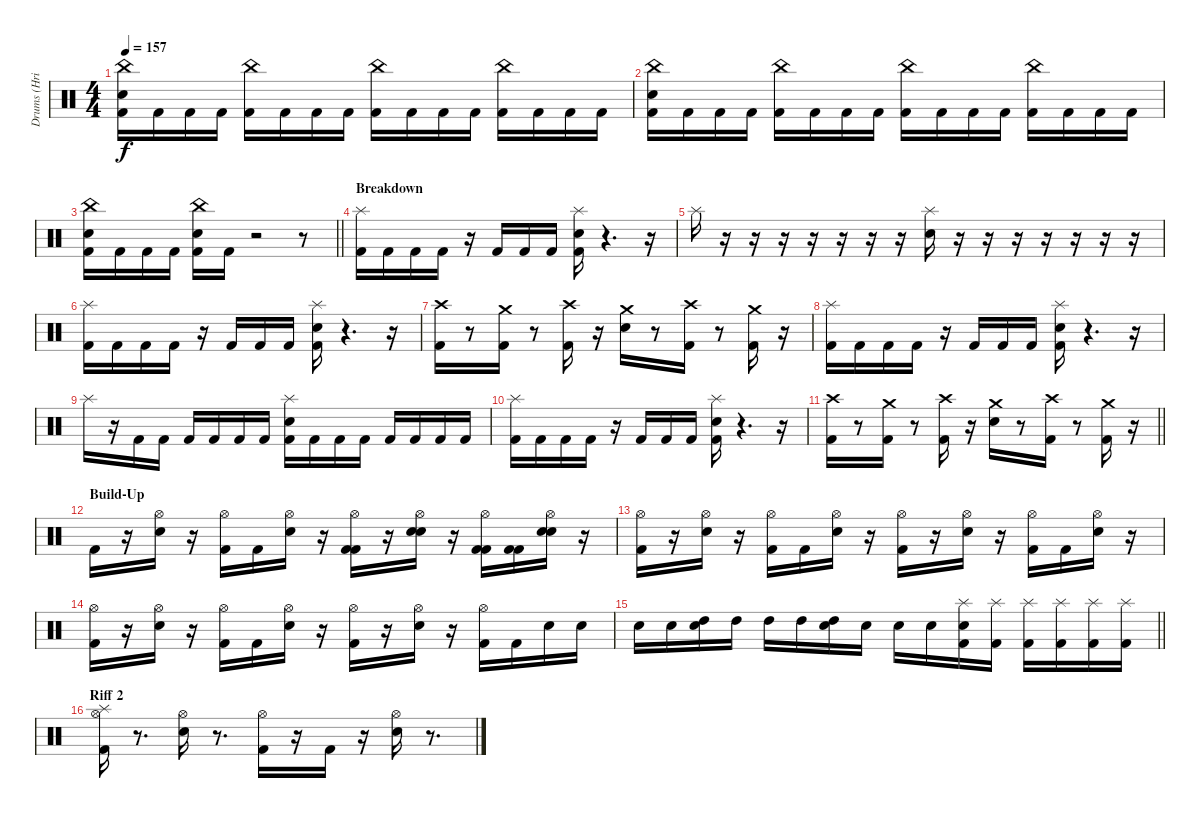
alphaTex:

\track ("Drums (Hriso)" "Drums (Hri") {instrument percussion}
\staff {score}
\articulation defaults
\ts (4 4)
\tempo 157
\clef neutral
\ks c
("Snare (hit) 2" "Kick (hit) 2" "China (hit)").16{dy f} "Kick (hit) 2".16 "Kick (hit) 2".16 "Kick (hit) 2".16 ("Kick (hit) 2" "China (hit)").16 "Kick (hit) 2".16 "Kick (hit) 2".16 "Kick (hit) 2".16 ("Kick (hit) 2" "China (hit)").16 "Kick (hit) 2".16 "Kick (hit) 2".16 "Kick (hit) 2".16 ("Kick (hit) 2" "China (hit)").16 "Kick (hit) 2".16 "Kick (hit) 2".16 "Kick (hit) 2".16 |
("Kick (hit) 2" "Snare (hit) 2" "China (hit)").16 "Kick (hit) 2".16 "Kick (hit) 2".16 "Kick (hit) 2".16 ("Kick (hit) 2" "China (hit)").16 "Kick (hit) 2".16 "Kick (hit) 2".16 "Kick (hit) 2".16 ("Kick (hit) 2" "China (hit)").16 "Kick (hit) 2".16 "Kick (hit) 2".16 "Kick (hit) 2".16 ("Kick (hit) 2" "China (hit)").16 "Kick (hit) 2".16 "Kick (hit) 2".16 "Kick (hit) 2".16 |
\barLineRight lightlight
("Kick (hit) 2" "Snare (hit) 2" "China (hit)").16 "Kick (hit) 2".16 "Kick (hit) 2".16 "Kick (hit) 2".16 ("Kick (hit) 2" "Snare (hit) 2" "China (hit)").16 "Kick (hit) 2".16 r.2 r.8 |
\section ("" "Breakdown")
("Kick (hit) 2" "Splash (hit)").16 "Kick (hit) 2".16 "Kick (hit) 2".16 "Kick (hit) 2".16 r.16 "Kick (hit) 2".16 "Kick (hit) 2".16 "Kick (hit) 2".16 ("Kick (hit) 2" "Snare (hit) 2" "Splash (hit)").16 r.4{d} r.16 |
"Splash (hit)".16 r.16 r.16 r.16 r.16 r.16 r.16 r.16 ("Snare (hit) 2" "Splash (hit)").16 r.16 r.16 r.16 r.16 r.16 r.16 r.16 |
("Kick (hit) 2" "Splash (hit)").16 "Kick (hit) 2".16 "Kick (hit) 2".16 "Kick (hit) 2".16 r.16 "Kick (hit) 2".16 "Kick (hit) 2".16 "Kick (hit) 2".16 ("Kick (hit) 2" "Snare (hit) 2" "Splash (hit)").16 r.4{d} r.16 |
("Kick (hit) 2" "Crash high (hit)").16 r.8 ("Crash medium (hit)" "Kick (hit) 2").16 r.8 ("Kick (hit) 2" "Crash high (hit)").16 r.16 ("Crash medium (hit)" "Snare (hit) 2").16 r.8 ("Kick (hit) 2" "Crash high (hit)").16 r.8 ("Crash medium (hit)" "Kick (hit) 2").16 r.16 |
("Kick (hit) 2" "Splash (hit)").16 "Kick (hit) 2".16 "Kick (hit) 2".16 "Kick (hit) 2".16 r.16 "Kick (hit) 2".16 "Kick (hit) 2".16 "Kick (hit) 2".16 ("Kick (hit) 2" "Snare (hit) 2" "Splash (hit)").16 r.4{d} r.16 |
"Splash (hit)".16 r.16 "Kick (hit) 2".16 "Kick (hit) 2".16 "Kick (hit) 2".16 "Kick (hit) 2".16 "Kick (hit) 2".16 "Kick (hit) 2".16 ("Snare (hit) 2" "Kick (hit) 2" "Splash (hit)").16 "Kick (hit) 2".16 "Kick (hit) 2".16 "Kick (hit) 2".16 "Kick (hit) 2".16 "Kick (hit) 2".16 "Kick (hit) 2".16 "Kick (hit) 2".16 |
("Kick (hit) 2" "Splash (hit)").16 "Kick (hit) 2".16 "Kick (hit) 2".16 "Kick (hit) 2".16 r.16 "Kick (hit) 2".16 "Kick (hit) 2".16 "Kick (hit) 2".16 ("Snare (hit) 2" "Kick (hit) 2" "Splash (hit)").16 r.4{d} r.16 |
\barLineRight lightlight
("Kick (hit) 2" "Crash high (hit)").16 r.8 ("Kick (hit) 2" "Crash medium (hit)").16 r.8 ("Kick (hit) 2" "Crash high (hit)").16 r.16 ("Snare (hit) 2" "Crash medium (hit)").16 r.8 ("Kick (hit) 2" "Crash high (hit)").16 r.8 ("Kick (hit) 2" "Crash medium (hit)").16 r.16 |
\section ("" "Build-Up")
"Kick (hit) 2".16 r.16 ("Snare (hit) 2" "Hi-Hat (open)").16 r.16 ("Kick (hit) 2" "Hi-Hat (open)").16 "Kick (hit) 2".16 ("Snare (hit) 2" "Hi-Hat (open)").16 r.16 ("Kick (hit) 2" "Kick (hit) 2" "Hi-Hat (open)").16 r.16 ("Snare (hit) 2" "Snare (hit) 2" "Hi-Hat (open)").16 r.16 ("Kick (hit) 2" "Kick (hit) 2" "Hi-Hat (open)").16 ("Kick (hit) 2" "Kick (hit) 2").16 ("Snare (hit) 2" "Snare (hit) 2" "Hi-Hat (open)").16 r.16 |
("Kick (hit) 2" "Hi-Hat (open)").16 r.16 ("Snare (hit) 2" "Hi-Hat (open)").16 r.16 ("Kick (hit) 2" "Hi-Hat (open)").16 "Kick (hit) 2".16 ("Snare (hit) 2" "Hi-Hat (open)").16 r.16 ("Kick (hit) 2" "Hi-Hat (open)").16 r.16 ("Snare (hit) 2" "Hi-Hat (open)").16 r.16 ("Kick (hit) 2" "Hi-Hat (open)").16 "Kick (hit) 2".16 ("Snare (hit) 2" "Hi-Hat (open)").16 r.16 |
("Kick (hit) 2" "Hi-Hat (open)").16 r.16 ("Snare (hit) 2" "Hi-Hat (open)").16 r.16 ("Kick (hit) 2" "Hi-Hat (open)").16 "Kick (hit) 2".16 ("Snare (hit) 2" "Hi-Hat (open)").16 r.16 ("Kick (hit) 2" "Hi-Hat (open)").16 r.16 ("Snare (hit) 2" "Hi-Hat (open)").16 r.16 ("Kick (hit) 2" "Hi-Hat (open)").16 "Kick (hit) 2".16 "Snare (hit) 2".16 "Snare (hit) 2".16 |
\barLineRight lightlight "Snare (hit) 2".16 "Snare (hit) 2".16
("High Tom (hit)" "Snare (hit) 2").16 "High Tom (hit)".16 "High Tom (hit)".16 "High Tom (hit)".16 ("High Tom (hit)" "Snare (hit) 2").16 "Snare (hit) 2".16 "Snare (hit) 2".16 "Snare (hit) 2".16 ("Splash (hit)" "Kick (hit) 2" "Snare (hit) 2").16 ("Splash (hit)" "Kick (hit) 2").16 ("Splash (hit)" "Kick (hit) 2").16 ("Splash (hit)" "Kick (hit) 2").16 ("Splash (hit)" "Kick (hit) 2").16 ("Splash (hit)" "Kick (hit) 2").16 |
\section ("" "Riff 2")
("Hi-Hat (open)" "Kick (hit) 2" "Splash (hit)").16 r.8{d} ("Hi-Hat (open)" "Snare (hit) 2").16 r.8{d} ("Hi-Hat (open)" "Kick (hit) 2").16 r.16 "Kick (hit) 2".16 r.16 ("Hi-Hat (open)" "Snare (hit) 2").16 r.8{d}
